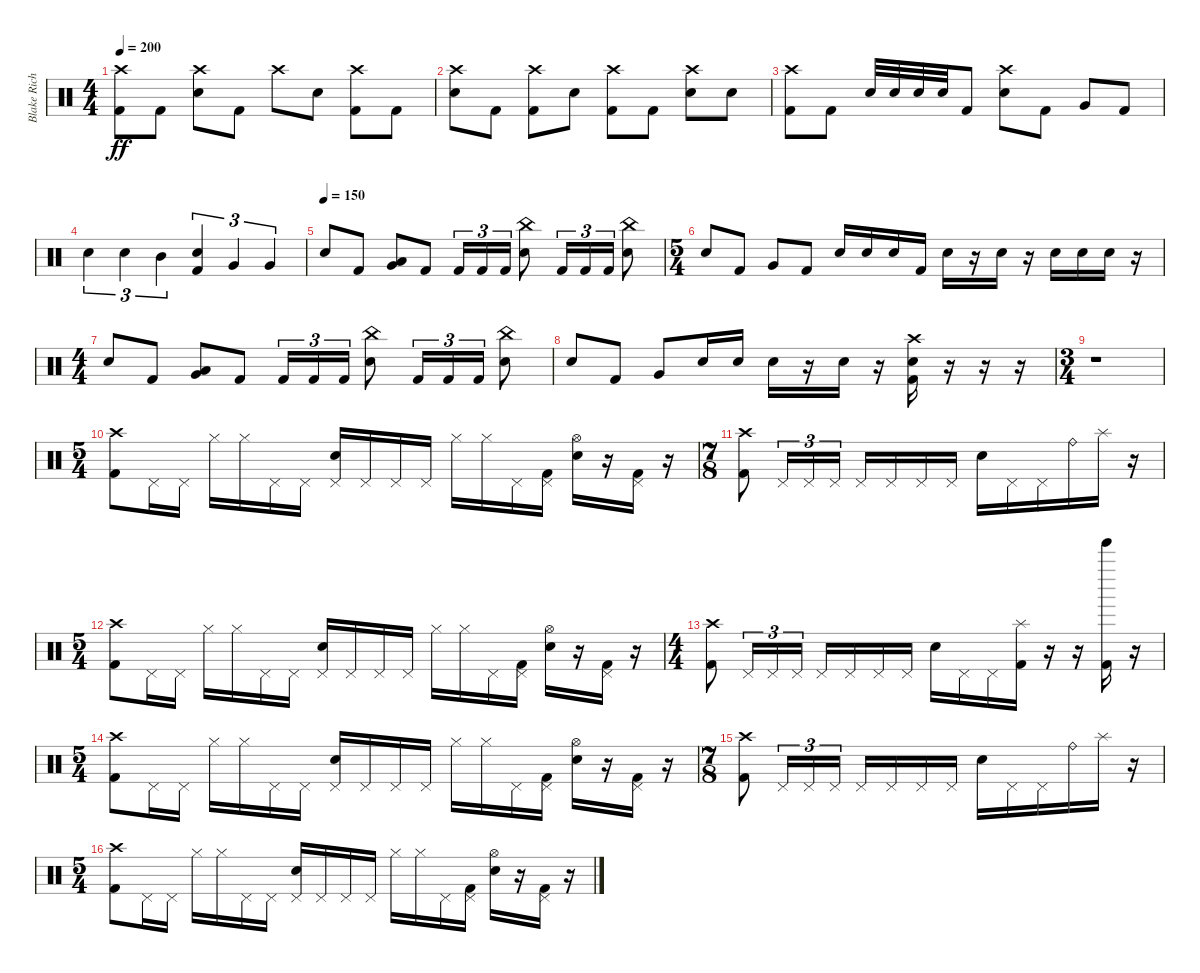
\track ("Blake Richardson" "Blake Rich") {instrument percussion}
\staff {score}
\articulation defaults
\ts (4 4)
\tempo 200
\clef neutral
\ks c
("Crash high (hit)" "Kick (hit) 2").8{dy ff} "Kick (hit) 2".8 ("Crash high (hit)" "Electric Snare (hit)").8 "Kick (hit) 2".8 "Crash high (hit)".8 "Electric Snare (hit)".8 ("Crash high (hit)" "Kick (hit) 2").8 "Kick (hit) 2".8 |
("Crash high (hit)" "Electric Snare (hit)").8 "Kick (hit) 2".8 ("Crash high (hit)" "Kick (hit) 2").8 "Electric Snare (hit)".8 ("Crash high (hit)" "Kick (hit) 2").8 "Kick (hit) 2".8 ("Crash high (hit)" "Electric Snare (hit)").8 "Electric Snare (hit)".8 |
("Crash high (hit)" "Kick (hit) 2").8 "Kick (hit) 2".8 "Electric Snare (hit)".32 "Electric Snare (hit)".32 "Electric Snare (hit)".32 "Electric Snare (hit)".32 "Kick (hit) 2".8 ("Crash high (hit)" "Electric Snare (hit)").8 "Kick (hit) 2".8 "Very Low Tom (hit)".8 "Kick (hit) 2".8 |
"Electric Snare (hit)".4{tu (3 2)} "Electric Snare (hit)".4{tu (3 2)} "Mid Tom (hit)".4{tu (3 2)} ("Electric Snare (hit)" "Kick (hit) 2").4{tu (3 2)} "Very Low Tom (hit)".4{tu (3 2)} "Very Low Tom (hit)".4{tu (3 2)} |
\tempo (150)
"Electric Snare (hit)".8 "Kick (hit) 2".8 ("Low Floor Tom (hit)" "Very Low Tom (hit)").8 "Kick (hit) 2".8 "Kick (hit) 2".16{tu (3 2)} "Kick (hit) 2".16{tu (3 2)} "Kick (hit) 2".16{tu (3 2)} ("China (hit)" "Electric Snare (hit)").8 "Kick (hit) 2".16{tu (3 2)} "Kick (hit) 2".16{tu (3 2)} "Kick (hit) 2".16{tu (3 2)} ("China (hit)" "Electric Snare (hit)").8 |
\ts (5 4)
"Electric Snare (hit)".8 "Kick (hit) 2".8 "Very Low Tom (hit)".8 "Kick (hit) 2".8 "Electric Snare (hit)".16 "Electric Snare (hit)".16 "Electric Snare (hit)".16 "Kick (hit) 2".16 "Electric Snare (hit)".16 r.16 "Electric Snare (hit)".16 r.16 "Electric Snare (hit)".16 "Electric Snare (hit)".16 "Electric Snare (hit)".16 r.16 |
\ts (4 4)
"Electric Snare (hit)".8 "Kick (hit) 2".8 ("Low Floor Tom (hit)" "Very Low Tom (hit)").8 "Kick (hit) 2".8 "Kick (hit) 2".16{tu (3 2)} "Kick (hit) 2".16{tu (3 2)} "Kick (hit) 2".16{tu (3 2)} ("China (hit)" "Electric Snare (hit)").8 "Kick (hit) 2".16{tu (3 2)} "Kick (hit) 2".16{tu (3 2)} "Kick (hit) 2".16{tu (3 2)} ("China (hit)" "Electric Snare (hit)").8 |
"Electric Snare (hit)".8 "Kick (hit) 2".8 "Very Low Tom (hit)".8 "Electric Snare (hit)".16 "Electric Snare (hit)".16 "Electric Snare (hit)".16 r.16 "Electric Snare (hit)".16 r.16 ("Crash high (hit)" "Electric Snare (hit)" "Kick (hit) 2").16 r.16 r.16 r.16 |
\ts (3 4)
r.1 |
\ts (5 4)
("Crash high (hit)" "Kick (hit) 2").8 "Pedal Hi-Hat (hit)".16 "Pedal Hi-Hat (hit)".16 "Hi-Hat (closed)".16 "Hi-Hat (closed)".16 "Pedal Hi-Hat (hit)".16 "Pedal Hi-Hat (hit)".16 ("Pedal Hi-Hat (hit)" "Electric Snare (hit)").16 "Pedal Hi-Hat (hit)".16 "Pedal Hi-Hat (hit)".16 "Pedal Hi-Hat (hit)".16 "Hi-Hat (closed)".16 "Hi-Hat (closed)".16 "Pedal Hi-Hat (hit)".16 ("Pedal Hi-Hat (hit)" "Kick (hit) 2").16 ("Hi-Hat (open)" "Electric Snare (hit)").16 r.16 ("Pedal Hi-Hat (hit)" "Kick (hit) 2").16 r.16 |
\ts (7 8)
("Crash high (hit)" "Kick (hit) 2").8 "Pedal Hi-Hat (hit)".16{tu (3 2)} "Pedal Hi-Hat (hit)".16{tu (3 2)} "Pedal Hi-Hat (hit)".16{tu (3 2)} "Pedal Hi-Hat (hit)".16 "Pedal Hi-Hat (hit)".16 "Pedal Hi-Hat (hit)".16 "Pedal Hi-Hat (hit)".16 "Electric Snare (hit)".16 "Pedal Hi-Hat (hit)".16 "Pedal Hi-Hat (hit)".16 "Ride (bell)".16 "Splash (hit)".16 r.16 |
\ts (5 4)
("Crash high (hit)" "Kick (hit) 2").8 "Pedal Hi-Hat (hit)".16 "Pedal Hi-Hat (hit)".16 "Hi-Hat (closed)".16 "Hi-Hat (closed)".16 "Pedal Hi-Hat (hit)".16 "Pedal Hi-Hat (hit)".16 ("Pedal Hi-Hat (hit)" "Electric Snare (hit)").16 "Pedal Hi-Hat (hit)".16 "Pedal Hi-Hat (hit)".16 "Pedal Hi-Hat (hit)".16 "Hi-Hat (closed)".16 "Hi-Hat (closed)".16 "Pedal Hi-Hat (hit)".16 ("Pedal Hi-Hat (hit)" "Kick (hit) 2").16 ("Hi-Hat (open)" "Electric Snare (hit)").16 r.16 ("Pedal Hi-Hat (hit)" "Kick (hit) 2").16 r.16 |
\ts (4 4)
("Crash high (hit)" "Kick (hit) 2").8 "Pedal Hi-Hat (hit)".16{tu (3 2)} "Pedal Hi-Hat (hit)".16{tu (3 2)} "Pedal Hi-Hat (hit)".16{tu (3 2)} "Pedal Hi-Hat (hit)".16 "Pedal Hi-Hat (hit)".16 "Pedal Hi-Hat (hit)".16 "Pedal Hi-Hat (hit)".16 "Electric Snare (hit)".16 "Pedal Hi-Hat (hit)".16 "Pedal Hi-Hat (hit)".16 ("Splash (hit)" "Kick (hit) 2").16 r.16 r.16 ("Tinkle Bell (hit)" "Kick (hit) 2").16 r.16 |
\ts (5 4)
("Crash high (hit)" "Kick (hit) 2").8 "Pedal Hi-Hat (hit)".16 "Pedal Hi-Hat (hit)".16 "Hi-Hat (closed)".16 "Hi-Hat (closed)".16 "Pedal Hi-Hat (hit)".16 "Pedal Hi-Hat (hit)".16 ("Pedal Hi-Hat (hit)" "Electric Snare (hit)").16 "Pedal Hi-Hat (hit)".16 "Pedal Hi-Hat (hit)".16 "Pedal Hi-Hat (hit)".16 "Hi-Hat (closed)".16 "Hi-Hat (closed)".16 "Pedal Hi-Hat (hit)".16 ("Pedal Hi-Hat (hit)" "Kick (hit) 2").16 ("Hi-Hat (open)" "Electric Snare (hit)").16 r.16 ("Pedal Hi-Hat (hit)" "Kick (hit) 2").16 r.16 |
\ts (7 8)
("Crash high (hit)" "Kick (hit) 2").8 "Pedal Hi-Hat (hit)".16{tu (3 2)} "Pedal Hi-Hat (hit)".16{tu (3 2)} "Pedal Hi-Hat (hit)".16{tu (3 2)} "Pedal Hi-Hat (hit)".16 "Pedal Hi-Hat (hit)".16 "Pedal Hi-Hat (hit)".16 "Pedal Hi-Hat (hit)".16 "Electric Snare (hit)".16 "Pedal Hi-Hat (hit)".16 "Pedal Hi-Hat (hit)".16 "Ride (bell)".16 "Splash (hit)".16 r.16 |
\ts (5 4)
("Crash high (hit)" "Kick (hit) 2").8 "Pedal Hi-Hat (hit)".16 "Pedal Hi-Hat (hit)".16 "Hi-Hat (closed)".16 "Hi-Hat (closed)".16 "Pedal Hi-Hat (hit)".16 "Pedal Hi-Hat (hit)".16 ("Pedal Hi-Hat (hit)" "Electric Snare (hit)").16 "Pedal Hi-Hat (hit)".16 "Pedal Hi-Hat (hit)".16 "Pedal Hi-Hat (hit)".16 "Hi-Hat (closed)".16 "Hi-Hat (closed)".16 "Pedal Hi-Hat (hit)".16 ("Pedal Hi-Hat (hit)" "Kick (hit) 2").16 ("Hi-Hat (open)" "Electric Snare (hit)").16 r.16 ("Pedal Hi-Hat (hit)" "Kick (hit) 2").16 r.16
